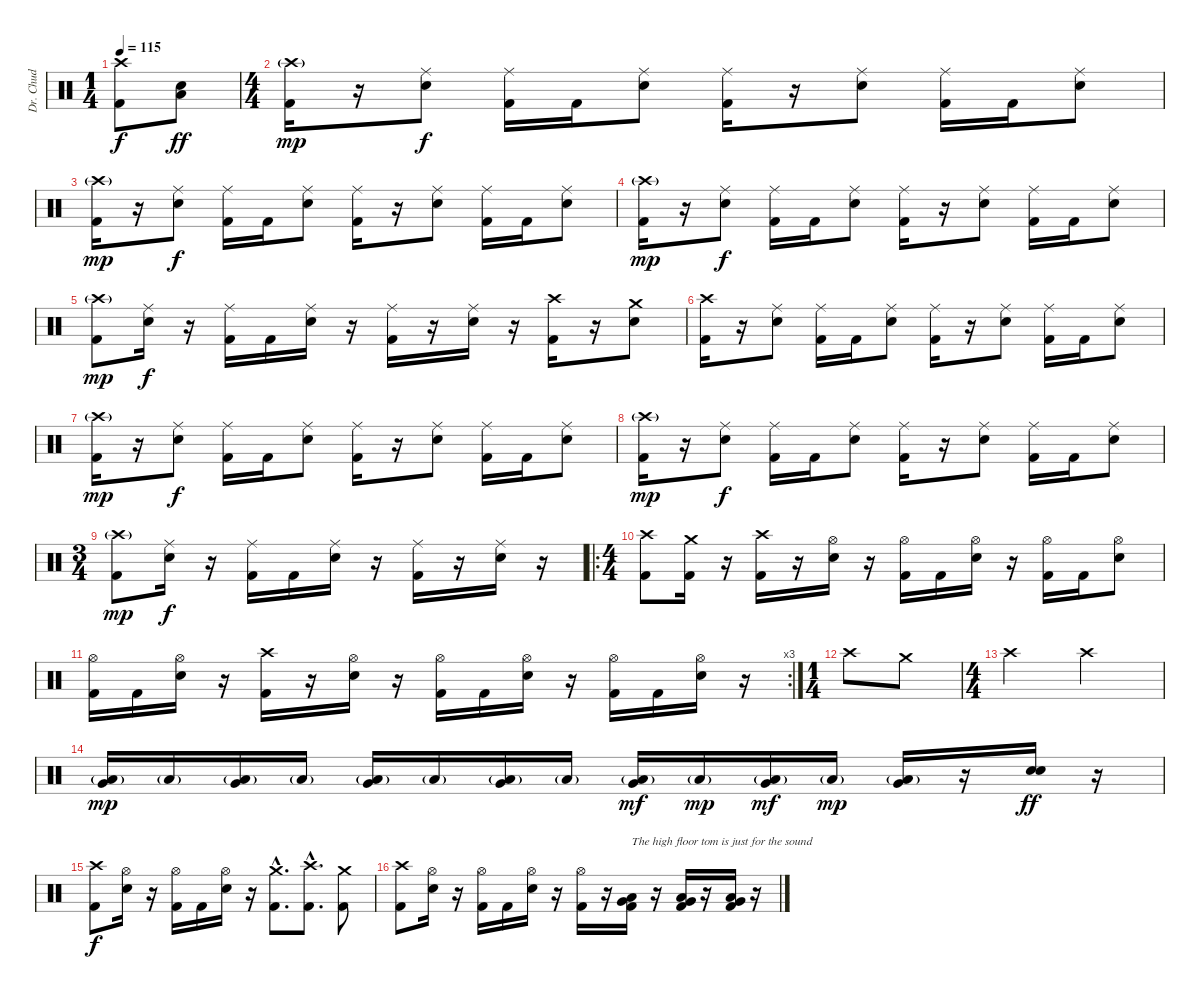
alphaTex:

\track ("Dr. Chud" "Dr. Chud") {instrument percussion}
\staff {score}
\articulation defaults
\ts (1 4)
\tempo 115
\clef neutral
\ks c
("Crash high (hit)" "Kick (hit) 2").8{dy f} ("Snare (hit) 2" "Low Floor Tom (hit)").8{dy ff} |
\ts (4 4)
("Crash high (hit)"{g} "Kick (hit) 2").16{dy mp} r.16 ("Ride (middle)" "Snare (hit) 2").8{dy f} ("Ride (middle)" "Kick (hit) 2").16 "Kick (hit) 2".16 ("Ride (middle)" "Snare (hit) 2").8 ("Ride (middle)" "Kick (hit) 2").16 r.16 ("Ride (middle)" "Snare (hit) 2").8 ("Ride (middle)" "Kick (hit) 2").16 "Kick (hit) 2".16 ("Ride (middle)" "Snare (hit) 2").8 |
("Crash high (hit)"{g} "Kick (hit) 2").16{dy mp} r.16 ("Ride (middle)" "Snare (hit) 2").8{dy f} ("Ride (middle)" "Kick (hit) 2").16 "Kick (hit) 2".16 ("Ride (middle)" "Snare (hit) 2").8 ("Ride (middle)" "Kick (hit) 2").16 r.16 ("Ride (middle)" "Snare (hit) 2").8 ("Ride (middle)" "Kick (hit) 2").16 "Kick (hit) 2".16 ("Ride (middle)" "Snare (hit) 2").8 |
("Crash high (hit)"{g} "Kick (hit) 2").16{dy mp} r.16 ("Ride (middle)" "Snare (hit) 2").8{dy f} ("Ride (middle)" "Kick (hit) 2").16 "Kick (hit) 2".16 ("Ride (middle)" "Snare (hit) 2").8 ("Ride (middle)" "Kick (hit) 2").16 r.16 ("Ride (middle)" "Snare (hit) 2").8 ("Ride (middle)" "Kick (hit) 2").16 "Kick (hit) 2".16 ("Ride (middle)" "Snare (hit) 2").8 |
("Crash high (hit)"{g} "Kick (hit) 2").8{dy mp} ("Ride (middle)" "Snare (hit) 2").16{dy f} r.16 ("Ride (middle)" "Kick (hit) 2").16 "Kick (hit) 2".16 ("Ride (middle)" "Snare (hit) 2").16 r.16 ("Ride (middle)" "Kick (hit) 2").16 r.16 ("Ride (middle)" "Snare (hit) 2").16 r.16 ("Crash high (hit)" "Kick (hit) 2").16 r.16 ("Crash medium (hit)" "Snare (hit) 2").8 |
("Crash high (hit)" "Kick (hit) 2").16 r.16 ("Ride (middle)" "Snare (hit) 2").8 ("Ride (middle)" "Kick (hit) 2").16 "Kick (hit) 2".16 ("Ride (middle)" "Snare (hit) 2").8 ("Ride (middle)" "Kick (hit) 2").16 r.16 ("Ride (middle)" "Snare (hit) 2").8 ("Ride (middle)" "Kick (hit) 2").16 "Kick (hit) 2".16 ("Ride (middle)" "Snare (hit) 2").8 |
("Crash high (hit)"{g} "Kick (hit) 2").16{dy mp} r.16 ("Ride (middle)" "Snare (hit) 2").8{dy f} ("Ride (middle)" "Kick (hit) 2").16 "Kick (hit) 2".16 ("Ride (middle)" "Snare (hit) 2").8 ("Ride (middle)" "Kick (hit) 2").16 r.16 ("Ride (middle)" "Snare (hit) 2").8 ("Ride (middle)" "Kick (hit) 2").16 "Kick (hit) 2".16 ("Ride (middle)" "Snare (hit) 2").8 |
("Crash high (hit)"{g} "Kick (hit) 2").16{dy mp} r.16 ("Ride (middle)" "Snare (hit) 2").8{dy f} ("Ride (middle)" "Kick (hit) 2").16 "Kick (hit) 2".16 ("Ride (middle)" "Snare (hit) 2").8 ("Ride (middle)" "Kick (hit) 2").16 r.16 ("Ride (middle)" "Snare (hit) 2").8 ("Ride (middle)" "Kick (hit) 2").16 "Kick (hit) 2".16 ("Ride (middle)" "Snare (hit) 2").8 |
\ts (3 4)
("Crash high (hit)"{g} "Kick (hit) 2").8{dy mp} ("Ride (middle)" "Snare (hit) 2").16{dy f} r.16 ("Ride (middle)" "Kick (hit) 2").16 "Kick (hit) 2".16 ("Ride (middle)" "Snare (hit) 2").16 r.16 ("Ride (middle)" "Kick (hit) 2").16 r.16 ("Ride (middle)" "Snare (hit) 2").16 r.16 |
\ro
\ts (4 4)
("Crash high (hit)" "Kick (hit) 2").8 ("Crash medium (hit)" "Kick (hit) 2").16 r.16 ("Crash high (hit)" "Kick (hit) 2").16 r.16 ("Hi-Hat (open)" "Snare (hit) 2").16 r.16 ("Hi-Hat (open)" "Kick (hit) 2").16 "Kick (hit) 2".16 ("Hi-Hat (open)" "Snare (hit) 2").16 r.16 ("Hi-Hat (open)" "Kick (hit) 2").16 "Kick (hit) 2".16 ("Hi-Hat (open)" "Snare (hit) 2").8 |
\rc 3
("Hi-Hat (open)" "Kick (hit) 2").16 "Kick (hit) 2".16 ("Hi-Hat (open)" "Snare (hit) 2").16 r.16 ("Crash high (hit)" "Kick (hit) 2").16 r.16 ("Hi-Hat (open)" "Snare (hit) 2").16 r.16 ("Hi-Hat (open)" "Kick (hit) 2").16 "Kick (hit) 2".16 ("Hi-Hat (open)" "Snare (hit) 2").16 r.16 ("Hi-Hat (open)" "Kick (hit) 2").16 "Kick (hit) 2".16 ("Hi-Hat (open)" "Snare (hit) 2").16 r.16 |
\ts (1 4)
"Crash high (hit)".8 "Crash medium (hit)".8 |
\ts (4 4)
"Crash high (hit)".2 "Crash high (hit)".2 |
("Low Floor Tom (hit)"{g} "Very Low Tom (hit)").16{dy mp} "Low Floor Tom (hit)"{g}.16 ("Low Floor Tom (hit)"{g} "Very Low Tom (hit)").16 "Low Floor Tom (hit)"{g}.16 ("Low Floor Tom (hit)"{g} "Very Low Tom (hit)").16 "Low Floor Tom (hit)"{g}.16 ("Low Floor Tom (hit)"{g} "Very Low Tom (hit)").16 "Low Floor Tom (hit)"{g}.16 ("Low Floor Tom (hit)"{g} "Very Low Tom (hit)").16{dy mf} "Low Floor Tom (hit)"{g}.16{dy mp} ("Low Floor Tom (hit)"{g} "Very Low Tom (hit)").16{dy mf} "Low Floor Tom (hit)"{g}.16{dy mp} ("Low Floor Tom (hit)"{g} "Very Low Tom (hit)").16 r.16 ("Snare (hit) 2" "Snare (hit) 2").16{bd 60 dy ff} r.16 |
("Crash high (hit)" "Kick (hit) 2").8{dy f} ("Hi-Hat (open)" "Snare (hit) 2").16 r.16 ("Hi-Hat (open)" "Kick (hit) 2").16 "Kick (hit) 2".16 ("Hi-Hat (open)" "Snare (hit) 2").16 r.16 ("Crash medium (hit)"{hac} "Kick (hit) 2"{hac}).8{d} ("Crash high (hit)"{hac} "Kick (hit) 2"{hac}).8{d} ("Crash medium (hit)" "Kick (hit) 2").8 |
("Crash high (hit)" "Kick (hit) 2").8 ("Hi-Hat (open)" "Snare (hit) 2").16 r.16 ("Hi-Hat (open)" "Kick (hit) 2").16 "Kick (hit) 2".16 ("Hi-Hat (open)" "Snare (hit) 2").16 r.16 ("Hi-Hat (open)" "Kick (hit) 2").16 r.16 ("Kick (hit) 2" "Low Floor Tom (hit)" "Very Low Tom (hit)").16{txt "The high floor tom is just for the sound"} r.16 ("Kick (hit) 2" "Low Floor Tom (hit)" "Very Low Tom (hit)").16 r.16 ("Kick (hit) 2" "Low Floor Tom (hit)" "Very Low Tom (hit)").16 r.16
